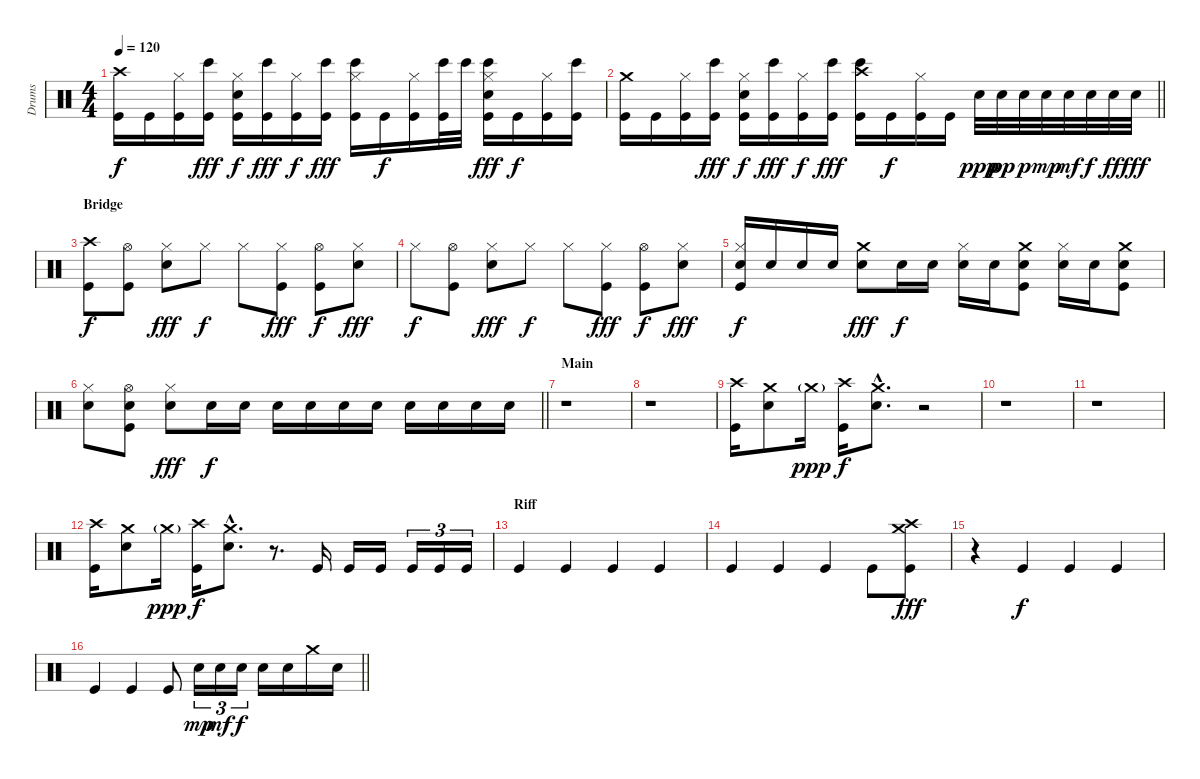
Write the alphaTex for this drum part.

\track ("Drums" "Drums") {instrument percussion}
\staff {score}
\articulation defaults
\ts (4 4)
\tempo 120
\clef neutral
\ks c
("Crash high (hit)" "Kick (hit)").16{dy f} "Kick (hit)".16 ("Hi-Hat (closed)" "Kick (hit)").16 ("Bongo High (hit)" "Kick (hit)").16{dy fff} ("Hi-Hat (closed)" "Electric Snare (hit)" "Kick (hit)").16{dy f} ("Bongo High (hit)" "Kick (hit)").16{dy fff} ("Hi-Hat (closed)" "Kick (hit)").16{dy f} ("Bongo High (hit)" "Kick (hit)").16{dy fff} ("Hi-Hat (closed)" "Bongo High (hit)" "Kick (hit)").16 "Kick (hit)".16{dy f} ("Hi-Hat (closed)" "Kick (hit)").16 ("Bongo High (hit)" "Kick (hit)").32 "Bongo High (hit)".32 ("Hi-Hat (closed)" "Electric Snare (hit)" "Bongo High (hit)" "Kick (hit)").16{dy fff} "Kick (hit)".16{dy f} ("Hi-Hat (closed)" "Kick (hit)").16 ("Bongo High (hit)" "Kick (hit)").16 |
\barLineRight lightlight
("Crash medium (hit)" "Kick (hit)").16 "Kick (hit)".16 ("Hi-Hat (closed)" "Kick (hit)").16 ("Bongo High (hit)" "Kick (hit)").16{dy fff} ("Hi-Hat (closed)" "Electric Snare (hit)" "Kick (hit)").16{dy f} ("Bongo High (hit)" "Kick (hit)").16{dy fff} ("Hi-Hat (closed)" "Kick (hit)").16{dy f} ("Bongo High (hit)" "Kick (hit)").16{dy fff} ("Crash high (hit)" "Bongo High (hit)" "Kick (hit)").16 "Kick (hit)".16{dy f} ("Hi-Hat (closed)" "Kick (hit)").16 "Kick (hit)".16 "Electric Snare (hit)".32{dy ppp} "Electric Snare (hit)".32{dy pp} "Electric Snare (hit)".32{dy p} "Electric Snare (hit)".32{dy mp} "Electric Snare (hit)".32{dy mf} "Electric Snare (hit)".32{dy f} "Electric Snare (hit)".32{dy ff} "Electric Snare (hit)".32{dy fff} |
\section ("" "Bridge")
("Crash high (hit)" "Kick (hit)").8{dy f} ("Hi-Hat (open)" "Kick (hit)").8 ("Hi-Hat (closed)" "Electric Snare (hit)").8{dy fff} "Hi-Hat (closed)".8{dy f} "Hi-Hat (closed)".8 ("Hi-Hat (closed)" "Kick (hit)").8{dy fff} ("Hi-Hat (open)" "Kick (hit)").8{dy f} ("Hi-Hat (closed)" "Electric Snare (hit)").8{dy fff} |
"Hi-Hat (closed)".8{dy f} ("Hi-Hat (open)" "Kick (hit)").8 ("Hi-Hat (closed)" "Electric Snare (hit)").8{dy fff} "Hi-Hat (closed)".8{dy f} "Hi-Hat (closed)".8 ("Hi-Hat (closed)" "Kick (hit)").8{dy fff} ("Hi-Hat (open)" "Kick (hit)").8{dy f} ("Hi-Hat (closed)" "Electric Snare (hit)").8{dy fff} |
("Hi-Hat (closed)" "Electric Snare (hit)" "Kick (hit)").16{dy f} "Electric Snare (hit)".16 "Electric Snare (hit)".16 "Electric Snare (hit)".16 ("Crash medium (hit)" "Electric Snare (hit)").8{dy fff} "Electric Snare (hit)".16{dy f} "Electric Snare (hit)".16 ("Hi-Hat (closed)" "Electric Snare (hit)").16 "Electric Snare (hit)".16 ("Crash medium (hit)" "Electric Snare (hit)" "Kick (hit)").8 ("Hi-Hat (closed)" "Electric Snare (hit)").16 "Electric Snare (hit)".16 ("Crash medium (hit)" "Electric Snare (hit)" "Kick (hit)").8 |
\barLineRight lightlight
("Hi-Hat (closed)" "Electric Snare (hit)").8 ("Hi-Hat (open)" "Electric Snare (hit)" "Kick (hit)").8 ("Hi-Hat (closed)" "Electric Snare (hit)").8{dy fff} "Electric Snare (hit)".16{dy f} "Electric Snare (hit)".16 "Electric Snare (hit)".16 "Electric Snare (hit)".16 "Electric Snare (hit)".16 "Electric Snare (hit)".16 "Electric Snare (hit)".16 "Electric Snare (hit)".16 "Electric Snare (hit)".16 "Electric Snare (hit)".16 |
\section ("" "Main")
r.1 |
r.1 |
("Crash high (hit)" "Kick (hit)").16 ("Crash medium (hit)" "Electric Snare (hit)").8 "Crash medium (hit)"{g}.16{dy ppp} ("Crash high (hit)" "Kick (hit)").16{dy f} ("Crash medium (hit)"{hac} "Electric Snare (hit)"{hac}).8{d} r.2 |
r.1 |
r.1 |
("Crash high (hit)" "Kick (hit)").16 ("Crash medium (hit)" "Electric Snare (hit)").8 "Crash medium (hit)"{g}.16{dy ppp} ("Crash high (hit)" "Kick (hit)").16{dy f} ("Crash medium (hit)"{hac} "Electric Snare (hit)"{hac}).8{d} r.8{d} "Kick (hit)".16 "Kick (hit)".16 "Kick (hit)".16 "Kick (hit)".16{tu (3 2)} "Kick (hit)".16{tu (3 2)} "Kick (hit)".16{tu (3 2)} |
\section ("" "Riff")
"Kick (hit)".4 "Kick (hit)".4 "Kick (hit)".4 "Kick (hit)".4 |
"Kick (hit)".4 "Kick (hit)".4 "Kick (hit)".4 "Kick (hit)".8 ("Crash medium (hit)" "Crash high (hit)" "Kick (hit)").8{dy fff} |
r.4 "Kick (hit)".4{dy f} "Kick (hit)".4 "Kick (hit)".4 |
\barLineRight lightlight "Kick (hit)".4 "Kick (hit)".4 "Kick (hit)".8 "Electric Snare (hit)".16{tu (3 2) dy mp} "Electric Snare (hit)".16{tu (3 2) dy mf} "Electric Snare (hit)".16{tu (3 2) dy f} "Electric Snare (hit)".16 "Electric Snare (hit)".16 "Crash medium (hit)".16 "Electric Snare (hit)".16
